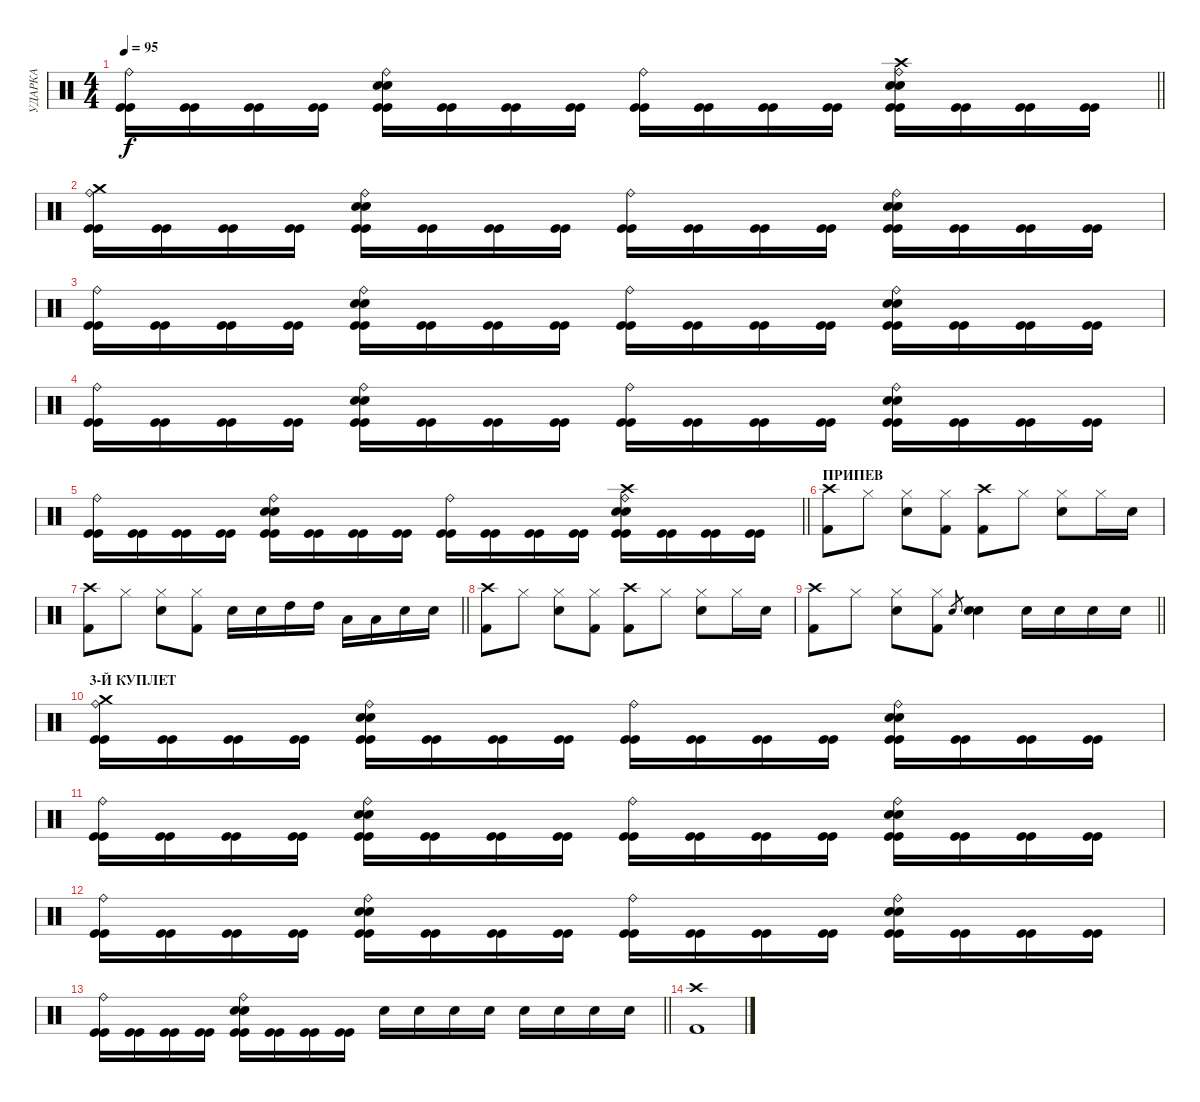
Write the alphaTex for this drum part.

\track ("УДАРКА" "УДАРКА") {solo instrument percussion}
\staff {score}
\articulation defaults
\ts (4 4)
\tempo 95
\clef neutral
\barLineRight lightlight
\ks c
("Ride (bell)" "Kick (hit)" "Kick (hit)").16{dy f} ("Kick (hit)" "Kick (hit)").16 ("Kick (hit)" "Kick (hit)").16 ("Kick (hit)" "Kick (hit)").16 ("Ride (bell)" "Snare (hit) 2" "Snare (hit) 2" "Kick (hit)" "Kick (hit)").16 ("Kick (hit)" "Kick (hit)").16 ("Kick (hit)" "Kick (hit)").16 ("Kick (hit)" "Kick (hit)").16 ("Ride (bell)" "Kick (hit)" "Kick (hit)").16 ("Kick (hit)" "Kick (hit)").16 ("Kick (hit)" "Kick (hit)").16 ("Kick (hit)" "Kick (hit)").16 ("Crash high (hit)" "Ride (bell)" "Snare (hit) 2" "Snare (hit) 2" "Kick (hit)" "Kick (hit)").16 ("Kick (hit)" "Kick (hit)").16 ("Kick (hit)" "Kick (hit)").16 ("Kick (hit)" "Kick (hit)").16 |
("Ride (bell)" "Crash medium (hit)" "Kick (hit)" "Kick (hit)").16 ("Kick (hit)" "Kick (hit)").16 ("Kick (hit)" "Kick (hit)").16 ("Kick (hit)" "Kick (hit)").16 ("Ride (bell)" "Snare (hit) 2" "Snare (hit) 2" "Kick (hit)" "Kick (hit)").16 ("Kick (hit)" "Kick (hit)").16 ("Kick (hit)" "Kick (hit)").16 ("Kick (hit)" "Kick (hit)").16 ("Ride (bell)" "Kick (hit)" "Kick (hit)").16 ("Kick (hit)" "Kick (hit)").16 ("Kick (hit)" "Kick (hit)").16 ("Kick (hit)" "Kick (hit)").16 ("Ride (bell)" "Snare (hit) 2" "Snare (hit) 2" "Kick (hit)" "Kick (hit)").16 ("Kick (hit)" "Kick (hit)").16 ("Kick (hit)" "Kick (hit)").16 ("Kick (hit)" "Kick (hit)").16 |
("Ride (bell)" "Kick (hit)" "Kick (hit)").16 ("Kick (hit)" "Kick (hit)").16 ("Kick (hit)" "Kick (hit)").16 ("Kick (hit)" "Kick (hit)").16 ("Ride (bell)" "Snare (hit) 2" "Snare (hit) 2" "Kick (hit)" "Kick (hit)").16 ("Kick (hit)" "Kick (hit)").16 ("Kick (hit)" "Kick (hit)").16 ("Kick (hit)" "Kick (hit)").16 ("Ride (bell)" "Kick (hit)" "Kick (hit)").16 ("Kick (hit)" "Kick (hit)").16 ("Kick (hit)" "Kick (hit)").16 ("Kick (hit)" "Kick (hit)").16 ("Ride (bell)" "Snare (hit) 2" "Snare (hit) 2" "Kick (hit)" "Kick (hit)").16 ("Kick (hit)" "Kick (hit)").16 ("Kick (hit)" "Kick (hit)").16 ("Kick (hit)" "Kick (hit)").16 |
("Ride (bell)" "Kick (hit)" "Kick (hit)").16 ("Kick (hit)" "Kick (hit)").16 ("Kick (hit)" "Kick (hit)").16 ("Kick (hit)" "Kick (hit)").16 ("Ride (bell)" "Snare (hit) 2" "Snare (hit) 2" "Kick (hit)" "Kick (hit)").16 ("Kick (hit)" "Kick (hit)").16 ("Kick (hit)" "Kick (hit)").16 ("Kick (hit)" "Kick (hit)").16 ("Ride (bell)" "Kick (hit)" "Kick (hit)").16 ("Kick (hit)" "Kick (hit)").16 ("Kick (hit)" "Kick (hit)").16 ("Kick (hit)" "Kick (hit)").16 ("Ride (bell)" "Snare (hit) 2" "Snare (hit) 2" "Kick (hit)" "Kick (hit)").16 ("Kick (hit)" "Kick (hit)").16 ("Kick (hit)" "Kick (hit)").16 ("Kick (hit)" "Kick (hit)").16 |
\barLineRight lightlight
("Ride (bell)" "Kick (hit)" "Kick (hit)").16 ("Kick (hit)" "Kick (hit)").16 ("Kick (hit)" "Kick (hit)").16 ("Kick (hit)" "Kick (hit)").16 ("Ride (bell)" "Snare (hit) 2" "Snare (hit) 2" "Kick (hit)" "Kick (hit)").16 ("Kick (hit)" "Kick (hit)").16 ("Kick (hit)" "Kick (hit)").16 ("Kick (hit)" "Kick (hit)").16 ("Ride (bell)" "Kick (hit)" "Kick (hit)").16 ("Kick (hit)" "Kick (hit)").16 ("Kick (hit)" "Kick (hit)").16 ("Kick (hit)" "Kick (hit)").16 ("Crash high (hit)" "Ride (bell)" "Snare (hit) 2" "Snare (hit) 2" "Kick (hit)" "Kick (hit)").16 ("Kick (hit)" "Kick (hit)").16 ("Kick (hit)" "Kick (hit)").16 ("Kick (hit)" "Kick (hit)").16 |
\section ("" "ПРИПЕВ")
("Crash high (hit)" "Kick (hit) 2").8 "Hi-Hat (closed)".8 ("Electric Snare (hit)" "Hi-Hat (closed)").8 ("Kick (hit) 2" "Hi-Hat (closed)").8 ("Kick (hit) 2" "Crash high (hit)").8 "Hi-Hat (closed)".8 ("Electric Snare (hit)" "Hi-Hat (closed)").8 "Hi-Hat (closed)".16 "Electric Snare (hit)".16 |
\barLineRight lightlight
("Crash high (hit)" "Kick (hit) 2").8 "Hi-Hat (closed)".8 ("Electric Snare (hit)" "Hi-Hat (closed)").8 ("Kick (hit) 2" "Hi-Hat (closed)").8 "Electric Snare (hit)".16 "Electric Snare (hit)".16 "High Tom (hit)".16 "High Tom (hit)".16 "Low Tom (hit)".16 "Low Tom (hit)".16 "Electric Snare (hit)".16 "Electric Snare (hit)".16 |
("Crash high (hit)" "Kick (hit) 2").8 "Hi-Hat (closed)".8 ("Electric Snare (hit)" "Hi-Hat (closed)").8 ("Kick (hit) 2" "Hi-Hat (closed)").8 ("Kick (hit) 2" "Crash high (hit)").8 "Hi-Hat (closed)".8 ("Electric Snare (hit)" "Hi-Hat (closed)").8 "Hi-Hat (closed)".16 "Electric Snare (hit)".16 |
\barLineRight lightlight
("Crash high (hit)" "Kick (hit) 2").8 "Hi-Hat (closed)".8 ("Electric Snare (hit)" "Hi-Hat (closed)").8 ("Kick (hit) 2" "Hi-Hat (closed)").8 "Electric Snare (hit)"{sl}.8{gr} ("Electric Snare (hit)" "Electric Snare (hit)").4 "Electric Snare (hit)".16 "Electric Snare (hit)".16 "Electric Snare (hit)".16 "Electric Snare (hit)".16 |
\section ("" "3-Й КУПЛЕТ")
("Ride (bell)" "Crash medium (hit)" "Kick (hit)" "Kick (hit)").16 ("Kick (hit)" "Kick (hit)").16 ("Kick (hit)" "Kick (hit)").16 ("Kick (hit)" "Kick (hit)").16 ("Ride (bell)" "Snare (hit) 2" "Snare (hit) 2" "Kick (hit)" "Kick (hit)").16 ("Kick (hit)" "Kick (hit)").16 ("Kick (hit)" "Kick (hit)").16 ("Kick (hit)" "Kick (hit)").16 ("Ride (bell)" "Kick (hit)" "Kick (hit)").16 ("Kick (hit)" "Kick (hit)").16 ("Kick (hit)" "Kick (hit)").16 ("Kick (hit)" "Kick (hit)").16 ("Ride (bell)" "Snare (hit) 2" "Snare (hit) 2" "Kick (hit)" "Kick (hit)").16 ("Kick (hit)" "Kick (hit)").16 ("Kick (hit)" "Kick (hit)").16 ("Kick (hit)" "Kick (hit)").16 |
("Ride (bell)" "Kick (hit)" "Kick (hit)").16 ("Kick (hit)" "Kick (hit)").16 ("Kick (hit)" "Kick (hit)").16 ("Kick (hit)" "Kick (hit)").16 ("Ride (bell)" "Snare (hit) 2" "Snare (hit) 2" "Kick (hit)" "Kick (hit)").16 ("Kick (hit)" "Kick (hit)").16 ("Kick (hit)" "Kick (hit)").16 ("Kick (hit)" "Kick (hit)").16 ("Ride (bell)" "Kick (hit)" "Kick (hit)").16 ("Kick (hit)" "Kick (hit)").16 ("Kick (hit)" "Kick (hit)").16 ("Kick (hit)" "Kick (hit)").16 ("Ride (bell)" "Snare (hit) 2" "Snare (hit) 2" "Kick (hit)" "Kick (hit)").16 ("Kick (hit)" "Kick (hit)").16 ("Kick (hit)" "Kick (hit)").16 ("Kick (hit)" "Kick (hit)").16 |
("Ride (bell)" "Kick (hit)" "Kick (hit)").16 ("Kick (hit)" "Kick (hit)").16 ("Kick (hit)" "Kick (hit)").16 ("Kick (hit)" "Kick (hit)").16 ("Ride (bell)" "Snare (hit) 2" "Snare (hit) 2" "Kick (hit)" "Kick (hit)").16 ("Kick (hit)" "Kick (hit)").16 ("Kick (hit)" "Kick (hit)").16 ("Kick (hit)" "Kick (hit)").16 ("Ride (bell)" "Kick (hit)" "Kick (hit)").16 ("Kick (hit)" "Kick (hit)").16 ("Kick (hit)" "Kick (hit)").16 ("Kick (hit)" "Kick (hit)").16 ("Ride (bell)" "Snare (hit) 2" "Snare (hit) 2" "Kick (hit)" "Kick (hit)").16 ("Kick (hit)" "Kick (hit)").16 ("Kick (hit)" "Kick (hit)").16 ("Kick (hit)" "Kick (hit)").16 |
\barLineRight lightlight
("Ride (bell)" "Kick (hit)" "Kick (hit)").16 ("Kick (hit)" "Kick (hit)").16 ("Kick (hit)" "Kick (hit)").16 ("Kick (hit)" "Kick (hit)").16 ("Ride (bell)" "Snare (hit) 2" "Snare (hit) 2" "Kick (hit)" "Kick (hit)").16 ("Kick (hit)" "Kick (hit)").16 ("Kick (hit)" "Kick (hit)").16 ("Kick (hit)" "Kick (hit)").16 "Electric Snare (hit)".16 "Electric Snare (hit)".16 "Electric Snare (hit)".16 "Electric Snare (hit)".16 "Electric Snare (hit)".16 "Electric Snare (hit)".16 "Electric Snare (hit)".16 "Electric Snare (hit)".16 |
("Crash high (hit)" "Kick (hit) 2").1
